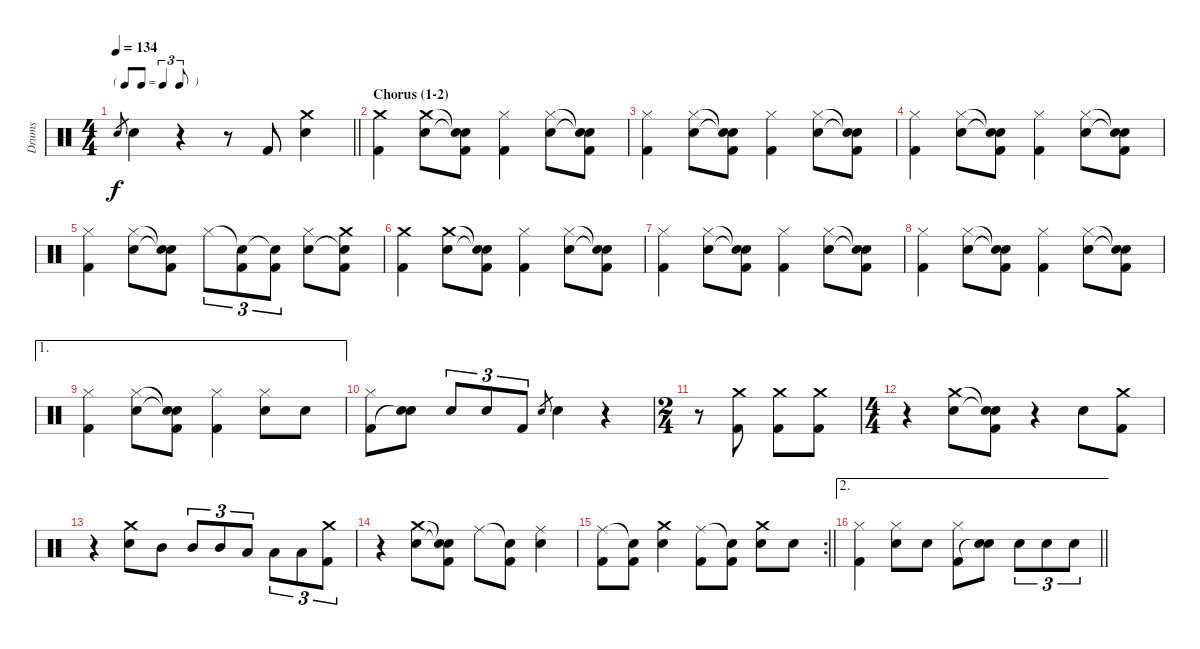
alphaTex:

\track ("Drums" "Drums") {instrument percussion}
\staff {score}
\articulation defaults
\ts (4 4)
\tf triplet8th
\tempo 134
\clef neutral
\barLineRight lightlight
\ks c "Electric Snare (hit)".8{gr dy f} "Electric Snare (hit)".4
r.4 r.8 "Kick (hit) 2".8 ("Crash medium (hit)" "Electric Snare (hit)").4 |
\section ("" "Chorus (1-2)")
("Crash medium (hit)" "Kick (hit) 2").4 ("Crash medium (hit)" "Electric Snare (hit)").8 ("Snare (hit)"{t} "Snare (hit)"{t} "Kick (hit) 2").8 ("Hi-Hat (closed)" "Kick (hit) 2").4 ("Hi-Hat (closed)" "Electric Snare (hit)").8 ("Snare (hit)"{t} "Snare (hit)"{t} "Kick (hit) 2").8 |
("Hi-Hat (closed)" "Kick (hit) 2").4 ("Hi-Hat (closed)" "Electric Snare (hit)").8 ("Snare (hit)"{t} "Snare (hit)"{t} "Kick (hit) 2").8 ("Hi-Hat (closed)" "Kick (hit) 2").4 ("Hi-Hat (closed)" "Electric Snare (hit)").8 ("Snare (hit)"{t} "Snare (hit)"{t} "Kick (hit) 2").8 |
("Hi-Hat (closed)" "Kick (hit) 2").4 ("Hi-Hat (closed)" "Electric Snare (hit)").8 ("Snare (hit)"{t} "Snare (hit)"{t} "Kick (hit) 2").8 ("Hi-Hat (closed)" "Kick (hit) 2").4 ("Hi-Hat (closed)" "Electric Snare (hit)").8 ("Snare (hit)"{t} "Snare (hit)"{t} "Kick (hit) 2").8 |
("Hi-Hat (closed)" "Kick (hit) 2").4 ("Hi-Hat (closed)" "Electric Snare (hit)").8 ("Snare (hit)"{t} "Snare (hit)"{t} "Kick (hit) 2").8 "Hi-Hat (closed)".8{tu (3 2)} ("Snare (hit)"{t} "Kick (hit) 2").8{tu (3 2)} ("Snare (hit)"{t} "Kick (hit) 2").8{tu (3 2)} ("Hi-Hat (closed)" "Electric Snare (hit)").8 ("Crash medium (hit)" "Snare (hit)"{t} "Kick (hit) 2").8 |
("Crash medium (hit)" "Kick (hit) 2").4 ("Crash medium (hit)" "Electric Snare (hit)").8 ("Snare (hit)"{t} "Snare (hit)"{t} "Kick (hit) 2").8 ("Hi-Hat (closed)" "Kick (hit) 2").4 ("Hi-Hat (closed)" "Electric Snare (hit)").8 ("Snare (hit)"{t} "Snare (hit)"{t} "Kick (hit) 2").8 |
("Hi-Hat (closed)" "Kick (hit) 2").4 ("Hi-Hat (closed)" "Electric Snare (hit)").8 ("Snare (hit)"{t} "Snare (hit)"{t} "Kick (hit) 2").8 ("Hi-Hat (closed)" "Kick (hit) 2").4 ("Hi-Hat (closed)" "Electric Snare (hit)").8 ("Snare (hit)"{t} "Snare (hit)"{t} "Kick (hit) 2").8 |
("Hi-Hat (closed)" "Kick (hit) 2").4 ("Hi-Hat (closed)" "Electric Snare (hit)").8 ("Snare (hit)"{t} "Snare (hit)"{t} "Kick (hit) 2").8 ("Hi-Hat (closed)" "Kick (hit) 2").4 ("Hi-Hat (closed)" "Electric Snare (hit)").8 ("Snare (hit)"{t} "Snare (hit)"{t} "Kick (hit) 2").8 |
\ae 1
("Hi-Hat (closed)" "Kick (hit) 2").4 ("Hi-Hat (closed)" "Electric Snare (hit)").8 ("Snare (hit)"{t} "Snare (hit)"{t} "Kick (hit) 2").8 ("Hi-Hat (closed)" "Kick (hit) 2").4 ("Hi-Hat (closed)" "Electric Snare (hit)").8 "Electric Snare (hit)".8 |
("Hi-Hat (closed)" "Kick (hit) 2").8 ("Electric Snare (hit)" "Snare (hit)"{t}).8 "Electric Snare (hit)".8{tu (3 2)} "Electric Snare (hit)".8{tu (3 2)} "Kick (hit) 2".8{tu (3 2)} "Electric Snare (hit)".8{gr} "Electric Snare (hit)".4 r.4 |
\ts (2 4)
r.8 ("Crash medium (hit)" "Kick (hit) 2").8 ("Crash medium (hit)" "Kick (hit) 2").8 ("Crash medium (hit)" "Kick (hit) 2").8 |
\ts (4 4)
r.4 ("Crash medium (hit)" "Electric Snare (hit)").8 ("Snare (hit)"{t} "Snare (hit)"{t} "Kick (hit) 2").8 r.4 "Electric Snare (hit)".8 ("Crash medium (hit)" "Kick (hit) 2").8 |
r.4 ("Crash medium (hit)" "Electric Snare (hit)").8 "Mid Tom (hit)".8 "Mid Tom (hit)".8{tu (3 2)} "Mid Tom (hit)".8{tu (3 2)} "Low Tom (hit)".8{tu (3 2)} "Low Tom (hit)".8{tu (3 2)} "Low Tom (hit)".8{tu (3 2)} ("Crash medium (hit)" "Kick (hit) 2").8{tu (3 2)} |
r.4 ("Crash medium (hit)" "Electric Snare (hit)").8 ("Snare (hit)"{t} "Snare (hit)"{t} "Kick (hit) 2").8 "Ride (middle)".8 ("Snare (hit)"{t} "Kick (hit) 2").8 ("Ride (middle)" "Electric Snare (hit)").4 |
\rc 2
\barLineRight lightlight
("Ride (middle)" "Kick (hit) 2").8 ("Snare (hit)"{t} "Kick (hit) 2").8 ("Crash medium (hit)" "Electric Snare (hit)").4 ("Ride (middle)" "Kick (hit) 2").8 ("Snare (hit)"{t} "Kick (hit) 2").8 ("Crash medium (hit)" "Electric Snare (hit)").8 "Electric Snare (hit)".8 |
\ae 2
\barLineRight lightlight
("Hi-Hat (closed)" "Kick (hit) 2").4 ("Hi-Hat (closed)" "Electric Snare (hit)").8 "Electric Snare (hit)".8 ("Hi-Hat (closed)" "Kick (hit) 2").8 ("Electric Snare (hit)" "Snare (hit)"{t}).8 "Electric Snare (hit)".8{tu (3 2)} "Electric Snare (hit)".8{tu (3 2)} "Electric Snare (hit)".8{tu (3 2)}
